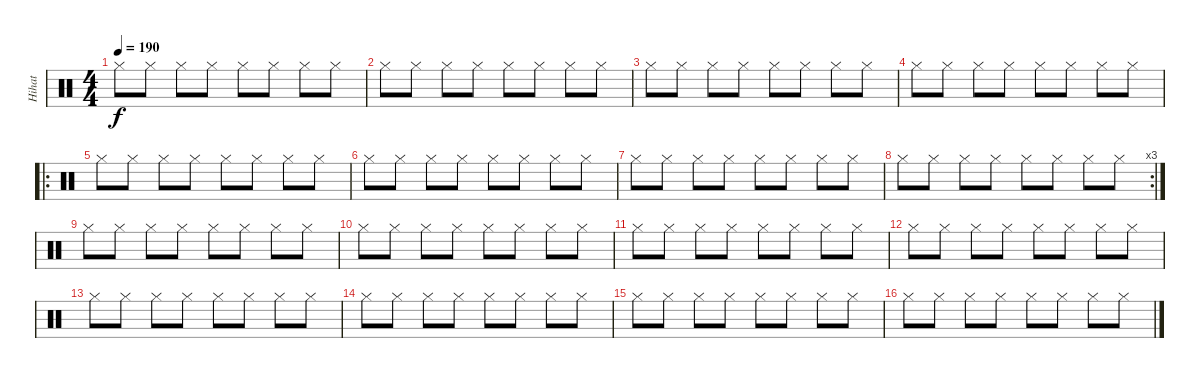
\track ("Hihat" "Hihat") {instrument percussion}
\staff {score}
\articulation defaults
\ts (4 4)
\tempo 190
\clef neutral
\ks c "Hi-Hat (closed)".8{dy f} "Hi-Hat (closed)".8 "Hi-Hat (closed)".8 "Hi-Hat (closed)".8 "Hi-Hat (closed)".8 "Hi-Hat (closed)".8 "Hi-Hat (closed)".8 "Hi-Hat (closed)".8
|
"Hi-Hat (closed)".8 "Hi-Hat (closed)".8 "Hi-Hat (closed)".8 "Hi-Hat (closed)".8 "Hi-Hat (closed)".8 "Hi-Hat (closed)".8 "Hi-Hat (closed)".8 "Hi-Hat (closed)".8 |
"Hi-Hat (closed)".8 "Hi-Hat (closed)".8 "Hi-Hat (closed)".8 "Hi-Hat (closed)".8 "Hi-Hat (closed)".8 "Hi-Hat (closed)".8 "Hi-Hat (closed)".8 "Hi-Hat (closed)".8 |
"Hi-Hat (closed)".8 "Hi-Hat (closed)".8 "Hi-Hat (closed)".8 "Hi-Hat (closed)".8 "Hi-Hat (closed)".8 "Hi-Hat (closed)".8 "Hi-Hat (closed)".8 "Hi-Hat (closed)".8 |
\ro "Hi-Hat (closed)".8 "Hi-Hat (closed)".8 "Hi-Hat (closed)".8 "Hi-Hat (closed)".8 "Hi-Hat (closed)".8 "Hi-Hat (closed)".8 "Hi-Hat (closed)".8 "Hi-Hat (closed)".8
|
"Hi-Hat (closed)".8 "Hi-Hat (closed)".8 "Hi-Hat (closed)".8 "Hi-Hat (closed)".8 "Hi-Hat (closed)".8 "Hi-Hat (closed)".8 "Hi-Hat (closed)".8 "Hi-Hat (closed)".8 |
"Hi-Hat (closed)".8 "Hi-Hat (closed)".8 "Hi-Hat (closed)".8 "Hi-Hat (closed)".8 "Hi-Hat (closed)".8 "Hi-Hat (closed)".8 "Hi-Hat (closed)".8 "Hi-Hat (closed)".8 |
\rc 3 "Hi-Hat (closed)".8 "Hi-Hat (closed)".8 "Hi-Hat (closed)".8 "Hi-Hat (closed)".8 "Hi-Hat (closed)".8 "Hi-Hat (closed)".8 "Hi-Hat (closed)".8 "Hi-Hat (closed)".8
|
"Hi-Hat (closed)".8 "Hi-Hat (closed)".8 "Hi-Hat (closed)".8 "Hi-Hat (closed)".8 "Hi-Hat (closed)".8 "Hi-Hat (closed)".8 "Hi-Hat (closed)".8 "Hi-Hat (closed)".8 |
"Hi-Hat (closed)".8 "Hi-Hat (closed)".8 "Hi-Hat (closed)".8 "Hi-Hat (closed)".8 "Hi-Hat (closed)".8 "Hi-Hat (closed)".8 "Hi-Hat (closed)".8 "Hi-Hat (closed)".8 |
"Hi-Hat (closed)".8 "Hi-Hat (closed)".8 "Hi-Hat (closed)".8 "Hi-Hat (closed)".8 "Hi-Hat (closed)".8 "Hi-Hat (closed)".8 "Hi-Hat (closed)".8 "Hi-Hat (closed)".8 |
"Hi-Hat (closed)".8 "Hi-Hat (closed)".8 "Hi-Hat (closed)".8 "Hi-Hat (closed)".8 "Hi-Hat (closed)".8 "Hi-Hat (closed)".8 "Hi-Hat (closed)".8 "Hi-Hat (closed)".8 |
"Hi-Hat (closed)".8 "Hi-Hat (closed)".8 "Hi-Hat (closed)".8 "Hi-Hat (closed)".8 "Hi-Hat (closed)".8 "Hi-Hat (closed)".8 "Hi-Hat (closed)".8 "Hi-Hat (closed)".8 |
"Hi-Hat (closed)".8 "Hi-Hat (closed)".8 "Hi-Hat (closed)".8 "Hi-Hat (closed)".8 "Hi-Hat (closed)".8 "Hi-Hat (closed)".8 "Hi-Hat (closed)".8 "Hi-Hat (closed)".8 |
"Hi-Hat (closed)".8 "Hi-Hat (closed)".8 "Hi-Hat (closed)".8 "Hi-Hat (closed)".8 "Hi-Hat (closed)".8 "Hi-Hat (closed)".8 "Hi-Hat (closed)".8 "Hi-Hat (closed)".8 |
"Hi-Hat (closed)".8 "Hi-Hat (closed)".8 "Hi-Hat (closed)".8 "Hi-Hat (closed)".8 "Hi-Hat (closed)".8 "Hi-Hat (closed)".8 "Hi-Hat (closed)".8 "Hi-Hat (closed)".8
